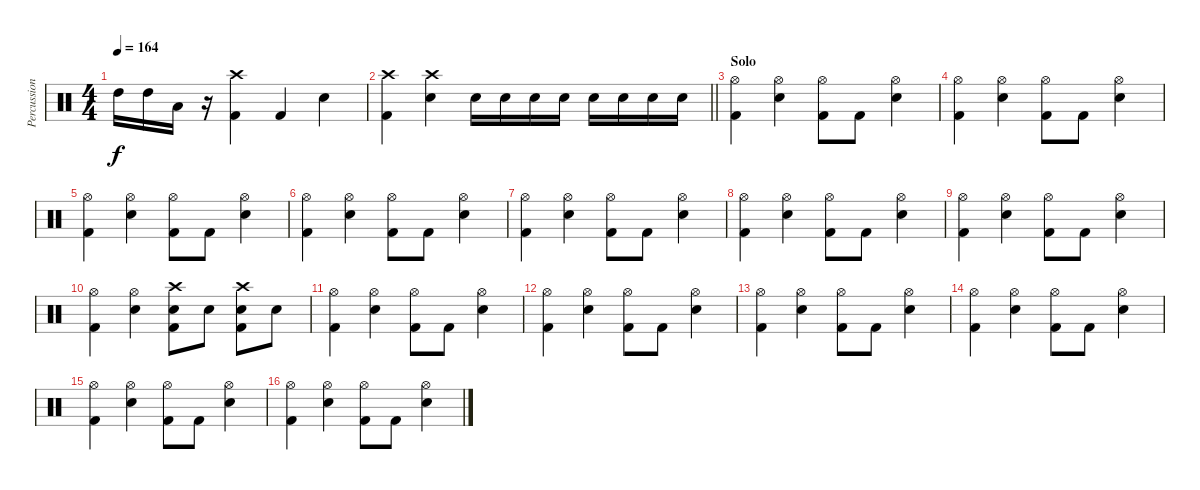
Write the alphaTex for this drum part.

\track ("Percussions" "Percussion") {instrument percussion}
\staff {score}
\articulation defaults
\ts (4 4)
\tempo 164
\clef neutral
\ks c "High Tom (hit)".16{dy f} "High Tom (hit)".16 "Low Tom (hit)".16
r.16 ("Crash high (hit)" "Kick (hit) 2").4 "Kick (hit) 2".4 "Snare (hit) 2".4 |
\barLineRight lightlight
("Crash high (hit)" "Kick (hit) 2").4 ("Crash high (hit)" "Snare (hit) 2").4 "Snare (hit) 2".16 "Snare (hit) 2".16 "Snare (hit) 2".16 "Snare (hit) 2".16 "Snare (hit) 2".16 "Snare (hit) 2".16 "Snare (hit) 2".16 "Snare (hit) 2".16 |
\section ("" "Solo")
("Hi-Hat (open)" "Kick (hit) 2").4 ("Hi-Hat (open)" "Snare (hit) 2").4 ("Hi-Hat (open)" "Kick (hit) 2").8 "Kick (hit) 2".8 ("Hi-Hat (open)" "Snare (hit) 2").4 |
("Hi-Hat (open)" "Kick (hit) 2").4 ("Hi-Hat (open)" "Snare (hit) 2").4 ("Hi-Hat (open)" "Kick (hit) 2").8 "Kick (hit) 2".8 ("Hi-Hat (open)" "Snare (hit) 2").4 |
("Hi-Hat (open)" "Kick (hit) 2").4 ("Hi-Hat (open)" "Snare (hit) 2").4 ("Hi-Hat (open)" "Kick (hit) 2").8 "Kick (hit) 2".8 ("Hi-Hat (open)" "Snare (hit) 2").4 |
("Hi-Hat (open)" "Kick (hit) 2").4 ("Hi-Hat (open)" "Snare (hit) 2").4 ("Hi-Hat (open)" "Kick (hit) 2").8 "Kick (hit) 2".8 ("Hi-Hat (open)" "Snare (hit) 2").4 |
("Hi-Hat (open)" "Kick (hit) 2").4 ("Hi-Hat (open)" "Snare (hit) 2").4 ("Hi-Hat (open)" "Kick (hit) 2").8 "Kick (hit) 2".8 ("Hi-Hat (open)" "Snare (hit) 2").4 |
("Hi-Hat (open)" "Kick (hit) 2").4 ("Hi-Hat (open)" "Snare (hit) 2").4 ("Hi-Hat (open)" "Kick (hit) 2").8 "Kick (hit) 2".8 ("Hi-Hat (open)" "Snare (hit) 2").4 |
("Hi-Hat (open)" "Kick (hit) 2").4 ("Hi-Hat (open)" "Snare (hit) 2").4 ("Hi-Hat (open)" "Kick (hit) 2").8 "Kick (hit) 2".8 ("Hi-Hat (open)" "Snare (hit) 2").4 |
("Hi-Hat (open)" "Kick (hit) 2").4 ("Hi-Hat (open)" "Snare (hit) 2").4 ("Crash high (hit)" "Snare (hit) 2" "Kick (hit) 2").8 "Snare (hit) 2".8 ("Crash high (hit)" "Snare (hit) 2" "Kick (hit) 2").8 "Snare (hit) 2".8 |
("Hi-Hat (open)" "Kick (hit) 2").4 ("Hi-Hat (open)" "Snare (hit) 2").4 ("Hi-Hat (open)" "Kick (hit) 2").8 "Kick (hit) 2".8 ("Hi-Hat (open)" "Snare (hit) 2").4 |
("Hi-Hat (open)" "Kick (hit) 2").4 ("Hi-Hat (open)" "Snare (hit) 2").4 ("Hi-Hat (open)" "Kick (hit) 2").8 "Kick (hit) 2".8 ("Hi-Hat (open)" "Snare (hit) 2").4 |
("Hi-Hat (open)" "Kick (hit) 2").4 ("Hi-Hat (open)" "Snare (hit) 2").4 ("Hi-Hat (open)" "Kick (hit) 2").8 "Kick (hit) 2".8 ("Hi-Hat (open)" "Snare (hit) 2").4 |
("Hi-Hat (open)" "Kick (hit) 2").4 ("Hi-Hat (open)" "Snare (hit) 2").4 ("Hi-Hat (open)" "Kick (hit) 2").8 "Kick (hit) 2".8 ("Hi-Hat (open)" "Snare (hit) 2").4 |
("Hi-Hat (open)" "Kick (hit) 2").4 ("Hi-Hat (open)" "Snare (hit) 2").4 ("Hi-Hat (open)" "Kick (hit) 2").8 "Kick (hit) 2".8 ("Hi-Hat (open)" "Snare (hit) 2").4 |
("Hi-Hat (open)" "Kick (hit) 2").4 ("Hi-Hat (open)" "Snare (hit) 2").4 ("Hi-Hat (open)" "Kick (hit) 2").8 "Kick (hit) 2".8 ("Hi-Hat (open)" "Snare (hit) 2").4
